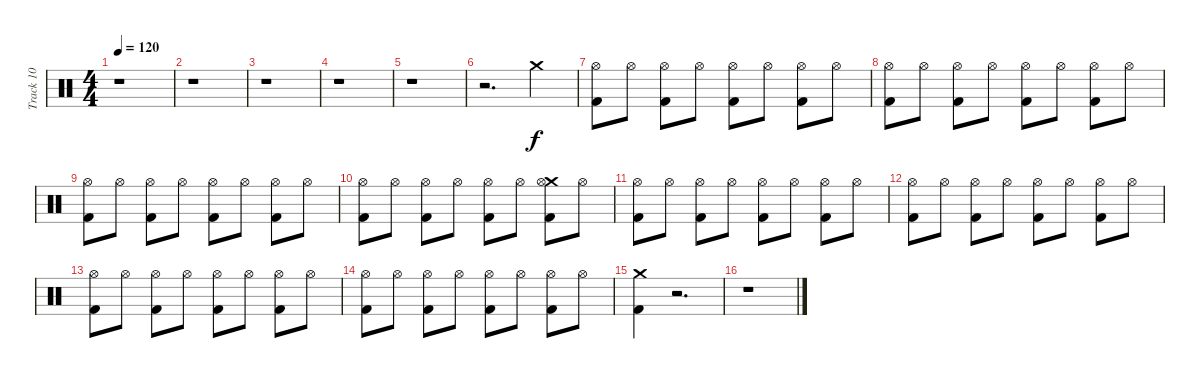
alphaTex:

\track ("Track 10" "Track 10") {instrument percussion}
\staff {score}
\articulation defaults
\ts (4 4)
\tempo 120
\clef neutral
\ks c
r.1{dy f} |
r.1 |
r.1 |
r.1 |
r.1 |
r.2{d} "Crash medium (hit)".4 |
("Hi-Hat (open)" "Kick (hit) 2").8 "Hi-Hat (open)".8 ("Hi-Hat (open)" "Kick (hit) 2").8 "Hi-Hat (open)".8 ("Hi-Hat (open)" "Kick (hit) 2").8 "Hi-Hat (open)".8 ("Hi-Hat (open)" "Kick (hit) 2").8 "Hi-Hat (open)".8 |
("Hi-Hat (open)" "Kick (hit) 2").8 "Hi-Hat (open)".8 ("Hi-Hat (open)" "Kick (hit) 2").8 "Hi-Hat (open)".8 ("Hi-Hat (open)" "Kick (hit) 2").8 "Hi-Hat (open)".8 ("Hi-Hat (open)" "Kick (hit) 2").8 "Hi-Hat (open)".8 |
("Hi-Hat (open)" "Kick (hit) 2").8 "Hi-Hat (open)".8 ("Hi-Hat (open)" "Kick (hit) 2").8 "Hi-Hat (open)".8 ("Hi-Hat (open)" "Kick (hit) 2").8 "Hi-Hat (open)".8 ("Hi-Hat (open)" "Kick (hit) 2").8 "Hi-Hat (open)".8 |
("Hi-Hat (open)" "Kick (hit) 2").8 "Hi-Hat (open)".8 ("Hi-Hat (open)" "Kick (hit) 2").8 "Hi-Hat (open)".8 ("Hi-Hat (open)" "Kick (hit) 2").8 "Hi-Hat (open)".8 ("Crash medium (hit)" "Hi-Hat (open)" "Kick (hit) 2").8 "Hi-Hat (open)".8 |
("Hi-Hat (open)" "Kick (hit) 2").8 "Hi-Hat (open)".8 ("Hi-Hat (open)" "Kick (hit) 2").8 "Hi-Hat (open)".8 ("Hi-Hat (open)" "Kick (hit) 2").8 "Hi-Hat (open)".8 ("Hi-Hat (open)" "Kick (hit) 2").8 "Hi-Hat (open)".8 |
("Hi-Hat (open)" "Kick (hit) 2").8 "Hi-Hat (open)".8 ("Hi-Hat (open)" "Kick (hit) 2").8 "Hi-Hat (open)".8 ("Hi-Hat (open)" "Kick (hit) 2").8 "Hi-Hat (open)".8 ("Hi-Hat (open)" "Kick (hit) 2").8 "Hi-Hat (open)".8 |
("Hi-Hat (open)" "Kick (hit) 2").8 "Hi-Hat (open)".8 ("Hi-Hat (open)" "Kick (hit) 2").8 "Hi-Hat (open)".8 ("Hi-Hat (open)" "Kick (hit) 2").8 "Hi-Hat (open)".8 ("Hi-Hat (open)" "Kick (hit) 2").8 "Hi-Hat (open)".8 |
("Hi-Hat (open)" "Kick (hit) 2").8 "Hi-Hat (open)".8 ("Hi-Hat (open)" "Kick (hit) 2").8 "Hi-Hat (open)".8 ("Hi-Hat (open)" "Kick (hit) 2").8 "Hi-Hat (open)".8 ("Hi-Hat (open)" "Kick (hit) 2").8 "Hi-Hat (open)".8 |
("Crash medium (hit)" "Kick (hit) 2").4 r.2{d} |
r.1
